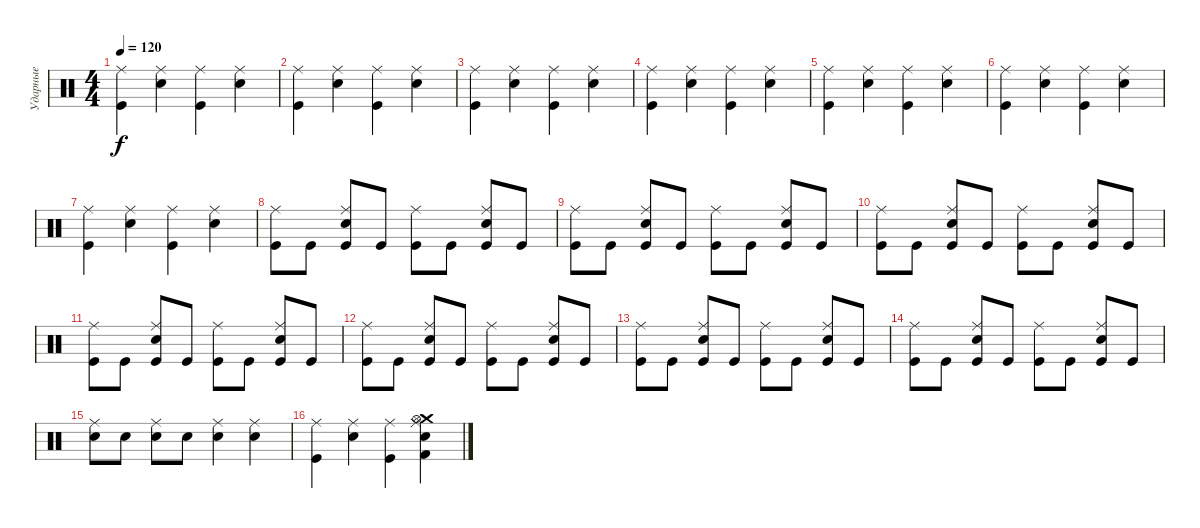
\track ("Ударные" "Ударные") {instrument percussion}
\staff {score}
\articulation defaults
\ts (4 4)
\tempo 120
\clef neutral
\ks c
("Kick (hit)" "Ride (middle)").4{dy f} ("Snare (hit) 2" "Ride (middle)").4 ("Kick (hit)" "Ride (middle)").4 ("Snare (hit) 2" "Ride (middle)").4 |
("Kick (hit)" "Ride (middle)").4 ("Snare (hit) 2" "Ride (middle)").4 ("Kick (hit)" "Ride (middle)").4 ("Snare (hit) 2" "Ride (middle)").4 |
("Kick (hit)" "Ride (middle)").4 ("Snare (hit) 2" "Ride (middle)").4 ("Kick (hit)" "Ride (middle)").4 ("Snare (hit) 2" "Ride (middle)").4 |
("Kick (hit)" "Ride (middle)").4 ("Snare (hit) 2" "Ride (middle)").4 ("Kick (hit)" "Ride (middle)").4 ("Snare (hit) 2" "Ride (middle)").4 |
("Kick (hit)" "Ride (middle)").4 ("Snare (hit) 2" "Ride (middle)").4 ("Kick (hit)" "Ride (middle)").4 ("Snare (hit) 2" "Ride (middle)").4 |
("Kick (hit)" "Ride (middle)").4 ("Snare (hit) 2" "Ride (middle)").4 ("Kick (hit)" "Ride (middle)").4 ("Snare (hit) 2" "Ride (middle)").4 |
("Kick (hit)" "Ride (middle)").4 ("Snare (hit) 2" "Ride (middle)").4 ("Kick (hit)" "Ride (middle)").4 ("Snare (hit) 2" "Ride (middle)").4 |
("Kick (hit)" "Ride (middle)").8 "Kick (hit)".8 ("Kick (hit)" "Snare (hit) 2" "Ride (middle)").8 "Kick (hit)".8 ("Kick (hit)" "Ride (middle)").8 "Kick (hit)".8 ("Kick (hit)" "Snare (hit) 2" "Ride (middle)").8 "Kick (hit)".8 |
("Kick (hit)" "Ride (middle)").8 "Kick (hit)".8 ("Kick (hit)" "Snare (hit) 2" "Ride (middle)").8 "Kick (hit)".8 ("Kick (hit)" "Ride (middle)").8 "Kick (hit)".8 ("Kick (hit)" "Snare (hit) 2" "Ride (middle)").8 "Kick (hit)".8 |
("Kick (hit)" "Ride (middle)").8 "Kick (hit)".8 ("Kick (hit)" "Snare (hit) 2" "Ride (middle)").8 "Kick (hit)".8 ("Kick (hit)" "Ride (middle)").8 "Kick (hit)".8 ("Kick (hit)" "Snare (hit) 2" "Ride (middle)").8 "Kick (hit)".8 |
("Kick (hit)" "Ride (middle)").8 "Kick (hit)".8 ("Kick (hit)" "Snare (hit) 2" "Ride (middle)").8 "Kick (hit)".8 ("Kick (hit)" "Ride (middle)").8 "Kick (hit)".8 ("Kick (hit)" "Snare (hit) 2" "Ride (middle)").8 "Kick (hit)".8 |
("Kick (hit)" "Ride (middle)").8 "Kick (hit)".8 ("Kick (hit)" "Snare (hit) 2" "Ride (middle)").8 "Kick (hit)".8 ("Kick (hit)" "Ride (middle)").8 "Kick (hit)".8 ("Kick (hit)" "Snare (hit) 2" "Ride (middle)").8 "Kick (hit)".8 |
("Kick (hit)" "Ride (middle)").8 "Kick (hit)".8 ("Kick (hit)" "Snare (hit) 2" "Ride (middle)").8 "Kick (hit)".8 ("Kick (hit)" "Ride (middle)").8 "Kick (hit)".8 ("Kick (hit)" "Snare (hit) 2" "Ride (middle)").8 "Kick (hit)".8 |
("Kick (hit)" "Ride (middle)").8 "Kick (hit)".8 ("Kick (hit)" "Snare (hit) 2" "Ride (middle)").8 "Kick (hit)".8 ("Kick (hit)" "Ride (middle)").8 "Kick (hit)".8 ("Kick (hit)" "Snare (hit) 2" "Ride (middle)").8 "Kick (hit)".8 |
("Snare (hit) 2" "Ride (middle)").8 "Snare (hit) 2".8 ("Snare (hit) 2" "Ride (middle)").8 "Snare (hit) 2".8 ("Snare (hit) 2" "Ride (middle)").4 ("Snare (hit) 2" "Ride (middle)").4 |
("Kick (hit)" "Ride (middle)").4 ("Snare (hit) 2" "Ride (middle)").4 ("Kick (hit)" "Ride (middle)").4 ("Snare (hit) 2" "Ride (middle)" "Kick (hit) 2" "Crash medium (hit)" "Hi-Hat (open)").4
